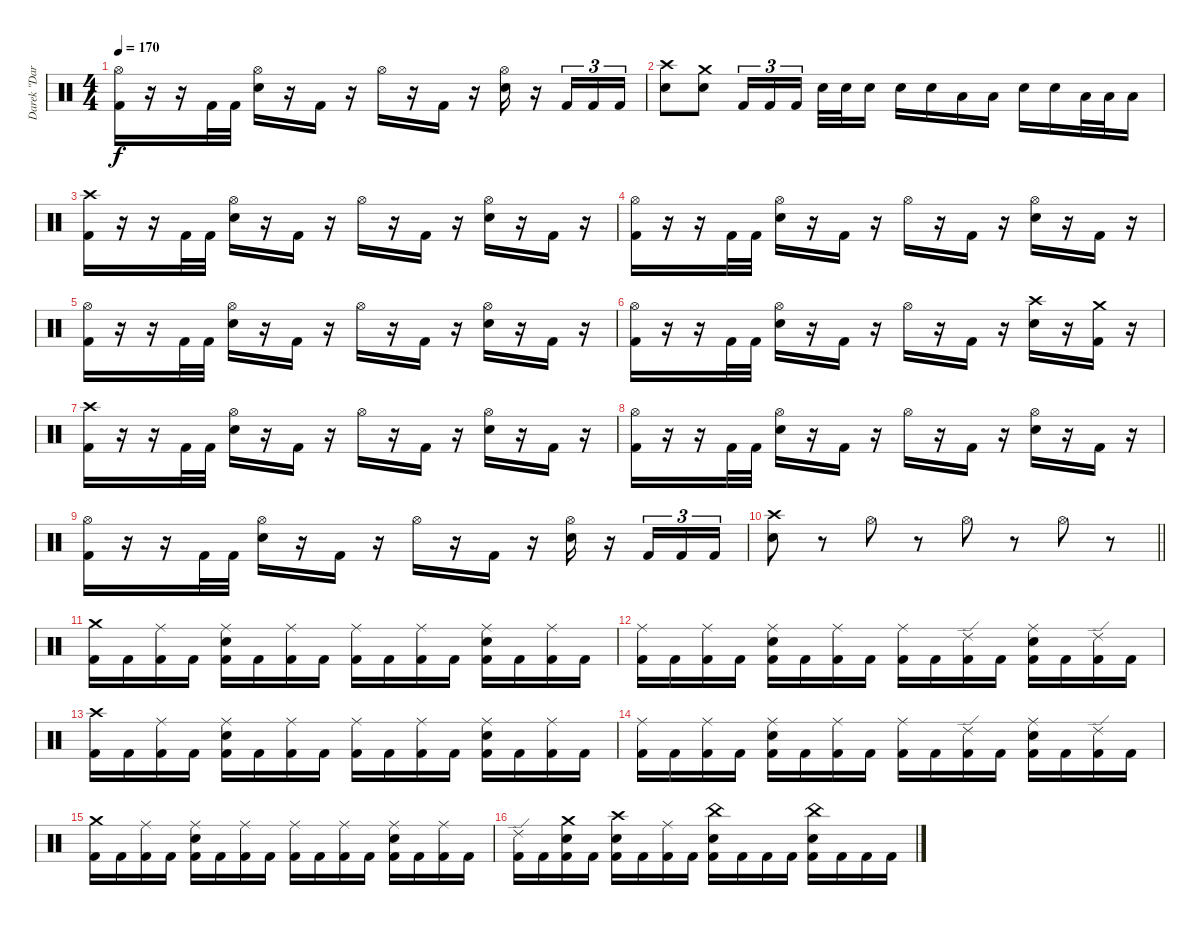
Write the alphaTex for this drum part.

\track ("Darek \"Daray\" Brzozowski " "Darek \"Dar") {instrument percussion}
\staff {score}
\articulation defaults
\ts (4 4)
\tempo 170
\clef neutral
\ks c
("Hi-Hat (open)" "Kick (hit) 2").16{dy f} r.16 r.16 "Kick (hit) 2".32 "Kick (hit) 2".32 ("Hi-Hat (open)" "Electric Snare (hit)").16 r.16 "Kick (hit) 2".16 r.16 "Hi-Hat (open)".16 r.16 "Kick (hit) 2".16 r.16 ("Hi-Hat (open)" "Electric Snare (hit)").16 r.16 "Kick (hit) 2".16{tu (3 2)} "Kick (hit) 2".16{tu (3 2)} "Kick (hit) 2".16{tu (3 2)} |
("Crash high (hit)" "Electric Snare (hit)").8 ("Crash medium (hit)" "Electric Snare (hit)").8 "Kick (hit) 2".16{tu (3 2)} "Kick (hit) 2".16{tu (3 2)} "Kick (hit) 2".16{tu (3 2) beam splitsecondary} "Electric Snare (hit)".32 "Electric Snare (hit)".32 "Electric Snare (hit)".16 "Electric Snare (hit)".16 "Electric Snare (hit)".16 "Low Floor Tom (hit)".16 "Low Floor Tom (hit)".16 "Electric Snare (hit)".16 "Electric Snare (hit)".16 "Low Tom (hit)".32 "Low Tom (hit)".32 "Low Tom (hit)".16 |
("Crash high (hit)" "Kick (hit) 2").16 r.16 r.16 "Kick (hit) 2".32 "Kick (hit) 2".32 ("Hi-Hat (open)" "Electric Snare (hit)").16 r.16 "Kick (hit) 2".16 r.16 "Hi-Hat (open)".16 r.16 "Kick (hit) 2".16 r.16 ("Hi-Hat (open)" "Electric Snare (hit)").16 r.16 "Kick (hit) 2".16 r.16 |
("Hi-Hat (open)" "Kick (hit) 2").16 r.16 r.16 "Kick (hit) 2".32 "Kick (hit) 2".32 ("Hi-Hat (open)" "Electric Snare (hit)").16 r.16 "Kick (hit) 2".16 r.16 "Hi-Hat (open)".16 r.16 "Kick (hit) 2".16 r.16 ("Hi-Hat (open)" "Electric Snare (hit)").16 r.16 "Kick (hit) 2".16 r.16 |
("Hi-Hat (open)" "Kick (hit) 2").16 r.16 r.16 "Kick (hit) 2".32 "Kick (hit) 2".32 ("Hi-Hat (open)" "Electric Snare (hit)").16 r.16 "Kick (hit) 2".16 r.16 "Hi-Hat (open)".16 r.16 "Kick (hit) 2".16 r.16 ("Hi-Hat (open)" "Electric Snare (hit)").16 r.16 "Kick (hit) 2".16 r.16 |
("Hi-Hat (open)" "Kick (hit) 2").16 r.16 r.16 "Kick (hit) 2".32 "Kick (hit) 2".32 ("Hi-Hat (open)" "Electric Snare (hit)").16 r.16 "Kick (hit) 2".16 r.16 "Hi-Hat (open)".16 r.16 "Kick (hit) 2".16 r.16 ("Crash high (hit)" "Electric Snare (hit)").16 r.16 ("Crash medium (hit)" "Kick (hit) 2").16 r.16 |
("Crash high (hit)" "Kick (hit) 2").16 r.16 r.16 "Kick (hit) 2".32 "Kick (hit) 2".32 ("Hi-Hat (open)" "Electric Snare (hit)").16 r.16 "Kick (hit) 2".16 r.16 "Hi-Hat (open)".16 r.16 "Kick (hit) 2".16 r.16 ("Hi-Hat (open)" "Electric Snare (hit)").16 r.16 "Kick (hit) 2".16 r.16 |
("Hi-Hat (open)" "Kick (hit) 2").16 r.16 r.16 "Kick (hit) 2".32 "Kick (hit) 2".32 ("Hi-Hat (open)" "Electric Snare (hit)").16 r.16 "Kick (hit) 2".16 r.16 "Hi-Hat (open)".16 r.16 "Kick (hit) 2".16 r.16 ("Hi-Hat (open)" "Electric Snare (hit)").16 r.16 "Kick (hit) 2".16 r.16 |
("Hi-Hat (open)" "Kick (hit) 2").16 r.16 r.16 "Kick (hit) 2".32 "Kick (hit) 2".32 ("Hi-Hat (open)" "Electric Snare (hit)").16 r.16 "Kick (hit) 2".16 r.16 "Hi-Hat (open)".16 r.16 "Kick (hit) 2".16 r.16 ("Hi-Hat (open)" "Electric Snare (hit)").16 r.16 "Kick (hit) 2".16{tu (3 2)} "Kick (hit) 2".16{tu (3 2)} "Kick (hit) 2".16{tu (3 2)} |
\barLineRight lightlight
("Crash high (hit)" "Electric Snare (hit)").8 r.8 "Hi-Hat (open)".8 r.8 "Hi-Hat (open)".8 r.8 "Hi-Hat (open)".8 r.8 |
("Crash medium (hit)" "Kick (hit) 2").16 "Kick (hit) 2".16 ("Ride (middle)" "Kick (hit) 2").16 "Kick (hit) 2".16 ("Ride (middle)" "Electric Snare (hit)" "Kick (hit) 2").16 "Kick (hit) 2".16 ("Ride (middle)" "Kick (hit) 2").16 "Kick (hit) 2".16 ("Ride (middle)" "Kick (hit) 2").16 "Kick (hit) 2".16 ("Ride (middle)" "Kick (hit) 2").16 "Kick (hit) 2".16 ("Ride (middle)" "Electric Snare (hit)" "Kick (hit) 2").16 "Kick (hit) 2".16 ("Ride (middle)" "Kick (hit) 2").16 "Kick (hit) 2".16 |
("Ride (middle)" "Kick (hit) 2").16 "Kick (hit) 2".16 ("Ride (middle)" "Kick (hit) 2").16 "Kick (hit) 2".16 ("Ride (middle)" "Electric Snare (hit)" "Kick (hit) 2").16 "Kick (hit) 2".16 ("Ride (middle)" "Kick (hit) 2").16 "Kick (hit) 2".16 ("Ride (middle)" "Kick (hit) 2").16 "Kick (hit) 2".16 ("Ride (edge) 2" "Kick (hit) 2").16 "Kick (hit) 2".16 ("Ride (middle)" "Electric Snare (hit)" "Kick (hit) 2").16 "Kick (hit) 2".16 ("Ride (edge) 2" "Kick (hit) 2").16 "Kick (hit) 2".16 |
("Crash high (hit)" "Kick (hit) 2").16 "Kick (hit) 2".16 ("Ride (middle)" "Kick (hit) 2").16 "Kick (hit) 2".16 ("Ride (middle)" "Electric Snare (hit)" "Kick (hit) 2").16 "Kick (hit) 2".16 ("Ride (middle)" "Kick (hit) 2").16 "Kick (hit) 2".16 ("Ride (middle)" "Kick (hit) 2").16 "Kick (hit) 2".16 ("Ride (middle)" "Kick (hit) 2").16 "Kick (hit) 2".16 ("Ride (middle)" "Electric Snare (hit)" "Kick (hit) 2").16 "Kick (hit) 2".16 ("Ride (middle)" "Kick (hit) 2").16 "Kick (hit) 2".16 |
("Ride (middle)" "Kick (hit) 2").16 "Kick (hit) 2".16 ("Ride (middle)" "Kick (hit) 2").16 "Kick (hit) 2".16 ("Ride (middle)" "Electric Snare (hit)" "Kick (hit) 2").16 "Kick (hit) 2".16 ("Ride (middle)" "Kick (hit) 2").16 "Kick (hit) 2".16 ("Ride (middle)" "Kick (hit) 2").16 "Kick (hit) 2".16 ("Ride (edge) 2" "Kick (hit) 2").16 "Kick (hit) 2".16 ("Ride (middle)" "Electric Snare (hit)" "Kick (hit) 2").16 "Kick (hit) 2".16 ("Ride (edge) 2" "Kick (hit) 2").16 "Kick (hit) 2".16 |
("Crash medium (hit)" "Kick (hit) 2").16 "Kick (hit) 2".16 ("Ride (middle)" "Kick (hit) 2").16 "Kick (hit) 2".16 ("Ride (middle)" "Electric Snare (hit)" "Kick (hit) 2").16 "Kick (hit) 2".16 ("Ride (middle)" "Kick (hit) 2").16 "Kick (hit) 2".16 ("Ride (middle)" "Kick (hit) 2").16 "Kick (hit) 2".16 ("Ride (middle)" "Kick (hit) 2").16 "Kick (hit) 2".16 ("Ride (middle)" "Electric Snare (hit)" "Kick (hit) 2").16 "Kick (hit) 2".16 ("Ride (middle)" "Kick (hit) 2").16 "Kick (hit) 2".16 |
("Ride (edge) 2" "Kick (hit) 2").16 "Kick (hit) 2".16 ("Crash medium (hit)" "Electric Snare (hit)" "Kick (hit) 2").16 "Kick (hit) 2".16 ("Crash high (hit)" "Electric Snare (hit)" "Kick (hit) 2").16 "Kick (hit) 2".16 ("Ride (middle)" "Kick (hit) 2").16 "Kick (hit) 2".16 ("China (hit)" "Electric Snare (hit)" "Kick (hit) 2").16 "Kick (hit) 2".16 "Kick (hit) 2".16 "Kick (hit) 2".16 ("China (hit)" "Electric Snare (hit)" "Kick (hit) 2").16 "Kick (hit) 2".16 "Kick (hit) 2".16 "Kick (hit) 2".16
